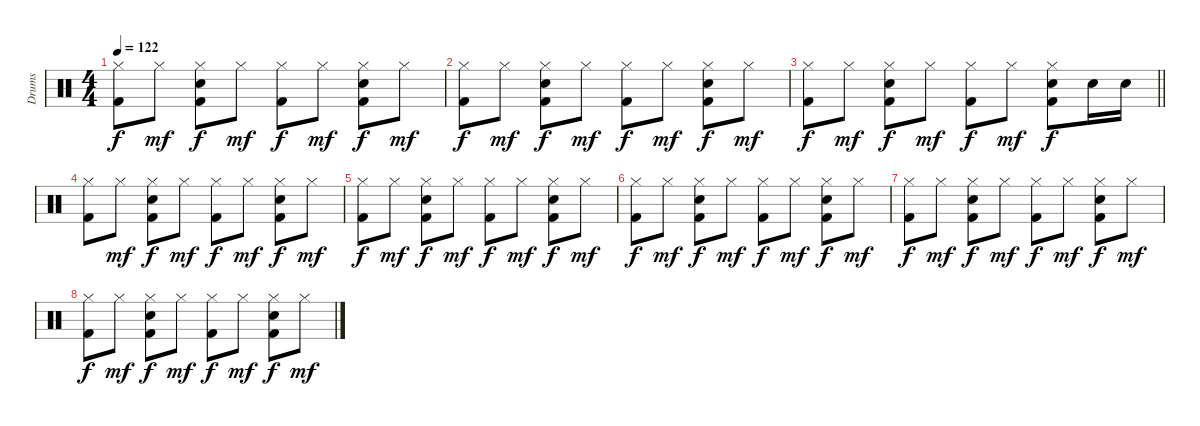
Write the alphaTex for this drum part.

\track ("Drums" "Drums") {instrument percussion}
\staff {score}
\articulation defaults
\ts (4 4)
\tempo 122
\clef neutral
\ks c
("Hi-Hat (closed)" "Kick (hit) 2").8{dy f} "Hi-Hat (closed)".8{dy mf} ("Hi-Hat (closed)" "Electric Snare (hit)" "Kick (hit) 2").8{dy f} "Hi-Hat (closed)".8{dy mf} ("Hi-Hat (closed)" "Kick (hit) 2").8{dy f} "Hi-Hat (closed)".8{dy mf} ("Hi-Hat (closed)" "Electric Snare (hit)" "Kick (hit) 2").8{dy f} "Hi-Hat (closed)".8{dy mf} |
("Hi-Hat (closed)" "Kick (hit) 2").8{dy f} "Hi-Hat (closed)".8{dy mf} ("Hi-Hat (closed)" "Electric Snare (hit)" "Kick (hit) 2").8{dy f} "Hi-Hat (closed)".8{dy mf} ("Hi-Hat (closed)" "Kick (hit) 2").8{dy f} "Hi-Hat (closed)".8{dy mf} ("Hi-Hat (closed)" "Electric Snare (hit)" "Kick (hit) 2").8{dy f} "Hi-Hat (closed)".8{dy mf} |
\barLineRight lightlight
("Hi-Hat (closed)" "Kick (hit) 2").8{dy f} "Hi-Hat (closed)".8{dy mf} ("Hi-Hat (closed)" "Electric Snare (hit)" "Kick (hit) 2").8{dy f} "Hi-Hat (closed)".8{dy mf} ("Hi-Hat (closed)" "Kick (hit) 2").8{dy f} "Hi-Hat (closed)".8{dy mf} ("Hi-Hat (closed)" "Electric Snare (hit)" "Kick (hit) 2").8{dy f} "Electric Snare (hit)".16 "Electric Snare (hit)".16 |
("Hi-Hat (closed)" "Kick (hit) 2").8 "Hi-Hat (closed)".8{dy mf} ("Hi-Hat (closed)" "Electric Snare (hit)" "Kick (hit) 2").8{dy f} "Hi-Hat (closed)".8{dy mf} ("Hi-Hat (closed)" "Kick (hit) 2").8{dy f} "Hi-Hat (closed)".8{dy mf} ("Hi-Hat (closed)" "Electric Snare (hit)" "Kick (hit) 2").8{dy f} "Hi-Hat (closed)".8{dy mf} |
("Hi-Hat (closed)" "Kick (hit) 2").8{dy f volume 0} "Hi-Hat (closed)".8{dy mf} ("Hi-Hat (closed)" "Electric Snare (hit)" "Kick (hit) 2").8{dy f} "Hi-Hat (closed)".8{dy mf} ("Hi-Hat (closed)" "Kick (hit) 2").8{dy f} "Hi-Hat (closed)".8{dy mf} ("Hi-Hat (closed)" "Electric Snare (hit)" "Kick (hit) 2").8{dy f} "Hi-Hat (closed)".8{dy mf} |
("Hi-Hat (closed)" "Kick (hit) 2").8{dy f} "Hi-Hat (closed)".8{dy mf} ("Hi-Hat (closed)" "Electric Snare (hit)" "Kick (hit) 2").8{dy f} "Hi-Hat (closed)".8{dy mf} ("Hi-Hat (closed)" "Kick (hit) 2").8{dy f} "Hi-Hat (closed)".8{dy mf} ("Hi-Hat (closed)" "Electric Snare (hit)" "Kick (hit) 2").8{dy f} "Hi-Hat (closed)".8{dy mf} |
("Hi-Hat (closed)" "Kick (hit) 2").8{dy f} "Hi-Hat (closed)".8{dy mf} ("Hi-Hat (closed)" "Electric Snare (hit)" "Kick (hit) 2").8{dy f} "Hi-Hat (closed)".8{dy mf} ("Hi-Hat (closed)" "Kick (hit) 2").8{dy f} "Hi-Hat (closed)".8{dy mf} ("Hi-Hat (closed)" "Electric Snare (hit)" "Kick (hit) 2").8{dy f} "Hi-Hat (closed)".8{dy mf} |
("Hi-Hat (closed)" "Kick (hit) 2").8{dy f} "Hi-Hat (closed)".8{dy mf} ("Hi-Hat (closed)" "Electric Snare (hit)" "Kick (hit) 2").8{dy f} "Hi-Hat (closed)".8{dy mf} ("Hi-Hat (closed)" "Kick (hit) 2").8{dy f} "Hi-Hat (closed)".8{dy mf} ("Hi-Hat (closed)" "Electric Snare (hit)" "Kick (hit) 2").8{dy f} "Hi-Hat (closed)".8{dy mf}
